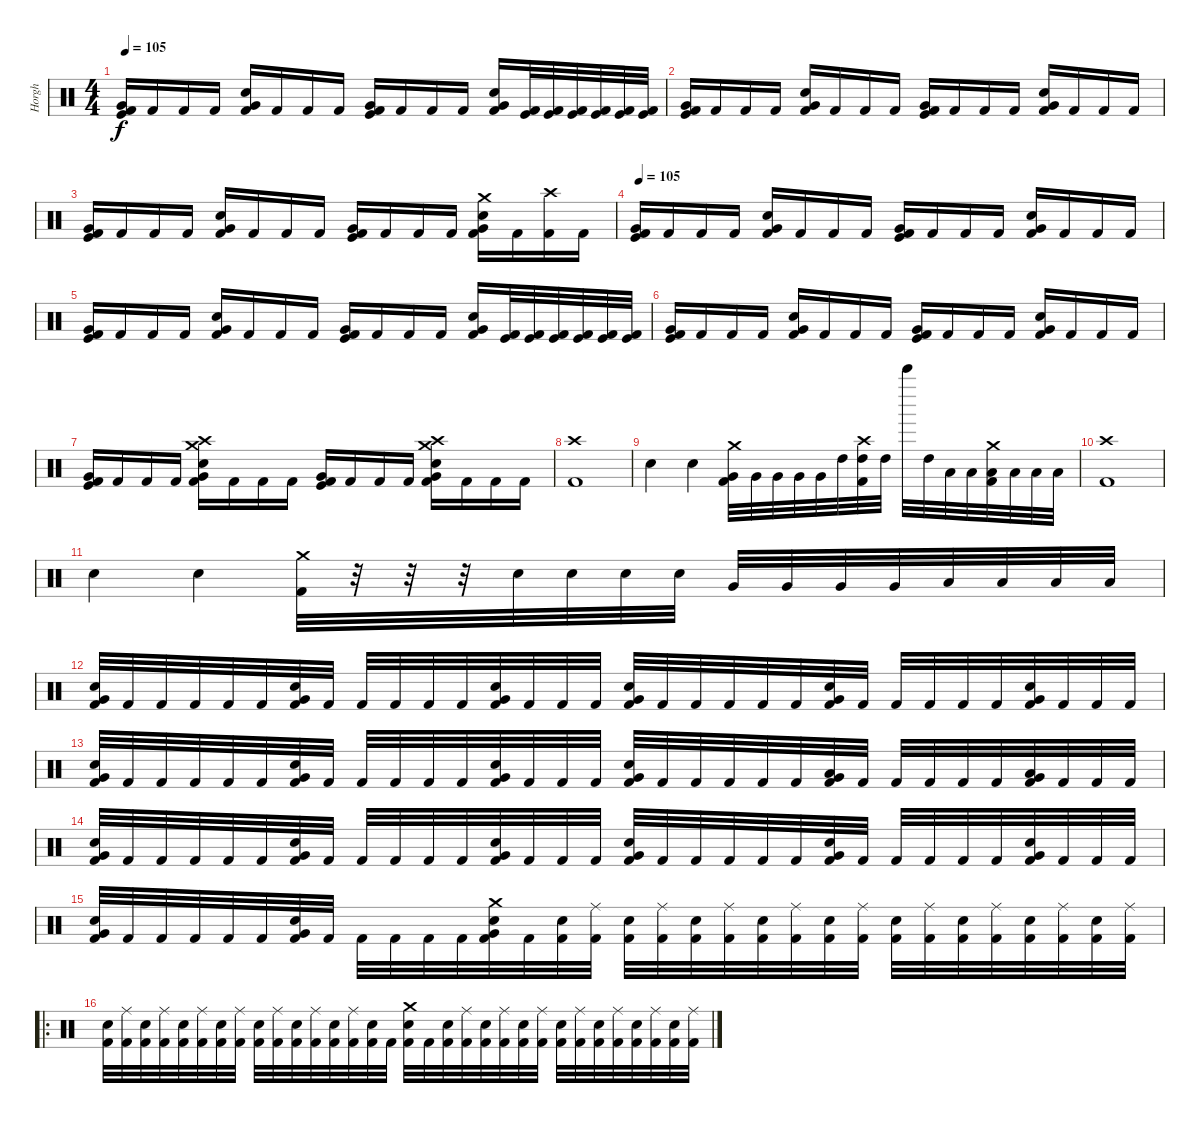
\track ("Horgh" "Horgh") {instrument percussion}
\staff {score}
\articulation defaults
\ts (4 4)
\tempo 105
\clef neutral
\ks c
("Kick (hit) 2" "Very Low Tom (hit)" "Kick (hit)").16{dy f} "Kick (hit) 2".16 "Kick (hit) 2".16 "Kick (hit) 2".16 ("Snare (hit) 2" "Very Low Tom (hit)" "Kick (hit) 2").16 "Kick (hit) 2".16 "Kick (hit) 2".16 "Kick (hit) 2".16 ("Kick (hit) 2" "Very Low Tom (hit)" "Kick (hit)").16 "Kick (hit) 2".16 "Kick (hit) 2".16 "Kick (hit) 2".16 ("Snare (hit) 2" "Very Low Tom (hit)" "Kick (hit) 2").16 ("Kick (hit)" "Kick (hit) 2").32 ("Kick (hit)" "Kick (hit) 2").32 ("Kick (hit)" "Kick (hit) 2").32 ("Kick (hit)" "Kick (hit) 2").32 ("Kick (hit)" "Kick (hit) 2").32 ("Kick (hit)" "Kick (hit) 2").32 |
("Kick (hit) 2" "Very Low Tom (hit)" "Kick (hit)").16 "Kick (hit) 2".16 "Kick (hit) 2".16 "Kick (hit) 2".16 ("Snare (hit) 2" "Very Low Tom (hit)" "Kick (hit) 2").16 "Kick (hit) 2".16 "Kick (hit) 2".16 "Kick (hit) 2".16 ("Kick (hit) 2" "Very Low Tom (hit)" "Kick (hit)").16 "Kick (hit) 2".16 "Kick (hit) 2".16 "Kick (hit) 2".16 ("Snare (hit) 2" "Very Low Tom (hit)" "Kick (hit) 2").16 "Kick (hit) 2".16 "Kick (hit) 2".16 "Kick (hit) 2".16 |
("Kick (hit) 2" "Very Low Tom (hit)" "Kick (hit)").16 "Kick (hit) 2".16 "Kick (hit) 2".16 "Kick (hit) 2".16 ("Snare (hit) 2" "Very Low Tom (hit)" "Kick (hit) 2").16 "Kick (hit) 2".16 "Kick (hit) 2".16 "Kick (hit) 2".16 ("Kick (hit) 2" "Very Low Tom (hit)" "Kick (hit)").16 "Kick (hit) 2".16 "Kick (hit) 2".16 "Kick (hit) 2".16 ("Crash medium (hit)" "Snare (hit) 2" "Very Low Tom (hit)" "Kick (hit) 2").16 "Kick (hit) 2".16 ("Crash high (hit)" "Kick (hit) 2").16 "Kick (hit) 2".16 |
\tempo 105
("Kick (hit) 2" "Very Low Tom (hit)" "Kick (hit)").16 "Kick (hit) 2".16 "Kick (hit) 2".16 "Kick (hit) 2".16 ("Snare (hit) 2" "Very Low Tom (hit)" "Kick (hit) 2").16 "Kick (hit) 2".16 "Kick (hit) 2".16 "Kick (hit) 2".16 ("Kick (hit) 2" "Very Low Tom (hit)" "Kick (hit)").16 "Kick (hit) 2".16 "Kick (hit) 2".16 "Kick (hit) 2".16 ("Snare (hit) 2" "Very Low Tom (hit)" "Kick (hit) 2").16 "Kick (hit) 2".16 "Kick (hit) 2".16 "Kick (hit) 2".16 |
("Kick (hit) 2" "Very Low Tom (hit)" "Kick (hit)").16 "Kick (hit) 2".16 "Kick (hit) 2".16 "Kick (hit) 2".16 ("Snare (hit) 2" "Very Low Tom (hit)" "Kick (hit) 2").16 "Kick (hit) 2".16 "Kick (hit) 2".16 "Kick (hit) 2".16 ("Kick (hit) 2" "Very Low Tom (hit)" "Kick (hit)").16 "Kick (hit) 2".16 "Kick (hit) 2".16 "Kick (hit) 2".16 ("Snare (hit) 2" "Very Low Tom (hit)" "Kick (hit) 2").16 ("Kick (hit)" "Kick (hit) 2").32 ("Kick (hit)" "Kick (hit) 2").32 ("Kick (hit)" "Kick (hit) 2").32 ("Kick (hit)" "Kick (hit) 2").32 ("Kick (hit)" "Kick (hit) 2").32 ("Kick (hit)" "Kick (hit) 2").32 |
("Kick (hit) 2" "Very Low Tom (hit)" "Kick (hit)").16 "Kick (hit) 2".16 "Kick (hit) 2".16 "Kick (hit) 2".16 ("Snare (hit) 2" "Very Low Tom (hit)" "Kick (hit) 2").16 "Kick (hit) 2".16 "Kick (hit) 2".16 "Kick (hit) 2".16 ("Kick (hit) 2" "Very Low Tom (hit)" "Kick (hit)").16 "Kick (hit) 2".16 "Kick (hit) 2".16 "Kick (hit) 2".16 ("Snare (hit) 2" "Very Low Tom (hit)" "Kick (hit) 2").16 "Kick (hit) 2".16 "Kick (hit) 2".16 "Kick (hit) 2".16 |
("Kick (hit) 2" "Very Low Tom (hit)" "Kick (hit)").16 "Kick (hit) 2".16 "Kick (hit) 2".16 "Kick (hit) 2".16 ("Crash medium (hit)" "Crash high (hit)" "Snare (hit) 2" "Very Low Tom (hit)" "Kick (hit) 2").16 "Kick (hit) 2".16 "Kick (hit) 2".16 "Kick (hit) 2".16 ("Kick (hit) 2" "Very Low Tom (hit)" "Kick (hit)").16 "Kick (hit) 2".16 "Kick (hit) 2".16 "Kick (hit) 2".16 ("Crash medium (hit)" "Crash high (hit)" "Snare (hit) 2" "Very Low Tom (hit)" "Kick (hit) 2").16 "Kick (hit) 2".16 "Kick (hit) 2".16 "Kick (hit) 2".16 |
("Crash high (hit)" "Kick (hit) 2").1 |
"Snare (hit)".4 "Snare (hit)".4 ("Crash medium (hit)" "Very Low Tom (hit)" "Kick (hit) 2").32 "Very Low Tom (hit)".32 "Very Low Tom (hit)".32 "Very Low Tom (hit)".32 "Very Low Tom (hit)".32 "High Tom (hit)".32 ("Crash high (hit)" "High Tom (hit)" "Kick (hit) 2").32 "High Tom (hit)".32 "Bell Tree (hit)".32 "High Tom (hit)".32 "Low Tom (hit)".32 "Low Tom (hit)".32 ("Crash medium (hit)" "Low Tom (hit)" "Kick (hit) 2").32 "Low Tom (hit)".32 "Low Tom (hit)".32 "Low Tom (hit)".32 |
("Crash high (hit)" "Kick (hit) 2").1 |
"Snare (hit)".4 "Snare (hit)".4 ("Crash medium (hit)" "Kick (hit) 2").32 r.32 r.32 r.32 "Electric Snare (hit)".32 "Electric Snare (hit)".32 "Electric Snare (hit)".32 "Electric Snare (hit)".32 "Very Low Tom (hit)".32 "Very Low Tom (hit)".32 "Very Low Tom (hit)".32 "Very Low Tom (hit)".32 "Low Tom (hit)".32 "Low Tom (hit)".32 "Low Tom (hit)".32 "Low Tom (hit)".32 |
("Electric Snare (hit)" "Very Low Tom (hit)" "Kick (hit) 2").32 "Kick (hit) 2".32 "Kick (hit) 2".32 "Kick (hit) 2".32 "Kick (hit) 2".32 "Kick (hit) 2".32 ("Electric Snare (hit)" "Very Low Tom (hit)" "Kick (hit) 2").32 "Kick (hit) 2".32 "Kick (hit) 2".32 "Kick (hit) 2".32 "Kick (hit) 2".32 "Kick (hit) 2".32 ("Electric Snare (hit)" "Very Low Tom (hit)" "Kick (hit) 2").32 "Kick (hit) 2".32 "Kick (hit) 2".32 "Kick (hit) 2".32 ("Electric Snare (hit)" "Very Low Tom (hit)" "Kick (hit) 2").32 "Kick (hit) 2".32 "Kick (hit) 2".32 "Kick (hit) 2".32 "Kick (hit) 2".32 "Kick (hit) 2".32 ("Electric Snare (hit)" "Very Low Tom (hit)" "Kick (hit) 2").32 "Kick (hit) 2".32 "Kick (hit) 2".32 "Kick (hit) 2".32 "Kick (hit) 2".32 "Kick (hit) 2".32 ("Electric Snare (hit)" "Very Low Tom (hit)" "Kick (hit) 2").32 "Kick (hit) 2".32 "Kick (hit) 2".32 "Kick (hit) 2".32 |
("Electric Snare (hit)" "Very Low Tom (hit)" "Kick (hit) 2").32 "Kick (hit) 2".32 "Kick (hit) 2".32 "Kick (hit) 2".32 "Kick (hit) 2".32 "Kick (hit) 2".32 ("Electric Snare (hit)" "Very Low Tom (hit)" "Kick (hit) 2").32 "Kick (hit) 2".32 "Kick (hit) 2".32 "Kick (hit) 2".32 "Kick (hit) 2".32 "Kick (hit) 2".32 ("Electric Snare (hit)" "Very Low Tom (hit)" "Kick (hit) 2").32 "Kick (hit) 2".32 "Kick (hit) 2".32 "Kick (hit) 2".32 ("Electric Snare (hit)" "Very Low Tom (hit)" "Kick (hit) 2").32 "Kick (hit) 2".32 "Kick (hit) 2".32 "Kick (hit) 2".32 "Kick (hit) 2".32 "Kick (hit) 2".32 ("Low Tom (hit)" "Very Low Tom (hit)" "Kick (hit) 2").32 "Kick (hit) 2".32 "Kick (hit) 2".32 "Kick (hit) 2".32 "Kick (hit) 2".32 "Kick (hit) 2".32 ("Low Tom (hit)" "Very Low Tom (hit)" "Kick (hit) 2").32 "Kick (hit) 2".32 "Kick (hit) 2".32 "Kick (hit) 2".32 |
("Electric Snare (hit)" "Very Low Tom (hit)" "Kick (hit) 2").32 "Kick (hit) 2".32 "Kick (hit) 2".32 "Kick (hit) 2".32 "Kick (hit) 2".32 "Kick (hit) 2".32 ("Electric Snare (hit)" "Very Low Tom (hit)" "Kick (hit) 2").32 "Kick (hit) 2".32 "Kick (hit) 2".32 "Kick (hit) 2".32 "Kick (hit) 2".32 "Kick (hit) 2".32 ("Electric Snare (hit)" "Very Low Tom (hit)" "Kick (hit) 2").32 "Kick (hit) 2".32 "Kick (hit) 2".32 "Kick (hit) 2".32 ("Electric Snare (hit)" "Very Low Tom (hit)" "Kick (hit) 2").32 "Kick (hit) 2".32 "Kick (hit) 2".32 "Kick (hit) 2".32 "Kick (hit) 2".32 "Kick (hit) 2".32 ("Electric Snare (hit)" "Very Low Tom (hit)" "Kick (hit) 2").32 "Kick (hit) 2".32 "Kick (hit) 2".32 "Kick (hit) 2".32 "Kick (hit) 2".32 "Kick (hit) 2".32 ("Electric Snare (hit)" "Very Low Tom (hit)" "Kick (hit) 2").32 "Kick (hit) 2".32 "Kick (hit) 2".32 "Kick (hit) 2".32 |
("Electric Snare (hit)" "Very Low Tom (hit)" "Kick (hit) 2").32 "Kick (hit) 2".32 "Kick (hit) 2".32 "Kick (hit) 2".32 "Kick (hit) 2".32 "Kick (hit) 2".32 ("Electric Snare (hit)" "Very Low Tom (hit)" "Kick (hit) 2").32 "Kick (hit) 2".32 "Kick (hit) 2".32 "Kick (hit) 2".32 "Kick (hit) 2".32 "Kick (hit) 2".32 ("Crash medium (hit)" "Electric Snare (hit)" "Very Low Tom (hit)" "Kick (hit) 2").32 "Kick (hit) 2".32 ("Electric Snare (hit)" "Kick (hit) 2").32 ("Ride (middle)" "Kick (hit) 2").32 ("Electric Snare (hit)" "Kick (hit) 2").32 ("Ride (middle)" "Kick (hit) 2").32 ("Electric Snare (hit)" "Kick (hit) 2").32 ("Ride (middle)" "Kick (hit) 2").32 ("Electric Snare (hit)" "Kick (hit) 2").32 ("Ride (middle)" "Kick (hit) 2").32 ("Electric Snare (hit)" "Kick (hit) 2").32 ("Ride (middle)" "Kick (hit) 2").32 ("Electric Snare (hit)" "Kick (hit) 2").32 ("Ride (middle)" "Kick (hit) 2").32 ("Electric Snare (hit)" "Kick (hit) 2").32 ("Ride (middle)" "Kick (hit) 2").32 ("Electric Snare (hit)" "Kick (hit) 2").32 ("Ride (middle)" "Kick (hit) 2").32 ("Electric Snare (hit)" "Kick (hit) 2").32 ("Ride (middle)" "Kick (hit) 2").32 |
\ro
("Electric Snare (hit)" "Kick (hit) 2").32 ("Ride (middle)" "Kick (hit) 2").32 ("Electric Snare (hit)" "Kick (hit) 2").32 ("Ride (middle)" "Kick (hit) 2").32 ("Electric Snare (hit)" "Kick (hit) 2").32 ("Ride (middle)" "Kick (hit) 2").32 ("Electric Snare (hit)" "Kick (hit) 2").32 ("Ride (middle)" "Kick (hit) 2").32 ("Electric Snare (hit)" "Kick (hit) 2").32 ("Ride (middle)" "Kick (hit) 2").32 ("Electric Snare (hit)" "Kick (hit) 2").32 ("Ride (middle)" "Kick (hit) 2").32 ("Electric Snare (hit)" "Kick (hit) 2").32 ("Ride (middle)" "Kick (hit) 2").32 ("Electric Snare (hit)" "Kick (hit) 2").32 "Kick (hit) 2".32 ("Crash medium (hit)" "Electric Snare (hit)" "Kick (hit) 2").32 "Kick (hit) 2".32 ("Electric Snare (hit)" "Kick (hit) 2").32 ("Ride (middle)" "Kick (hit) 2").32 ("Electric Snare (hit)" "Kick (hit) 2").32 ("Ride (middle)" "Kick (hit) 2").32 ("Electric Snare (hit)" "Kick (hit) 2").32 ("Ride (middle)" "Kick (hit) 2").32 ("Electric Snare (hit)" "Kick (hit) 2").32 ("Ride (middle)" "Kick (hit) 2").32 ("Electric Snare (hit)" "Kick (hit) 2").32 ("Ride (middle)" "Kick (hit) 2").32 ("Electric Snare (hit)" "Kick (hit) 2").32 ("Ride (middle)" "Kick (hit) 2").32 ("Electric Snare (hit)" "Kick (hit) 2").32 ("Ride (middle)" "Kick (hit) 2").32
